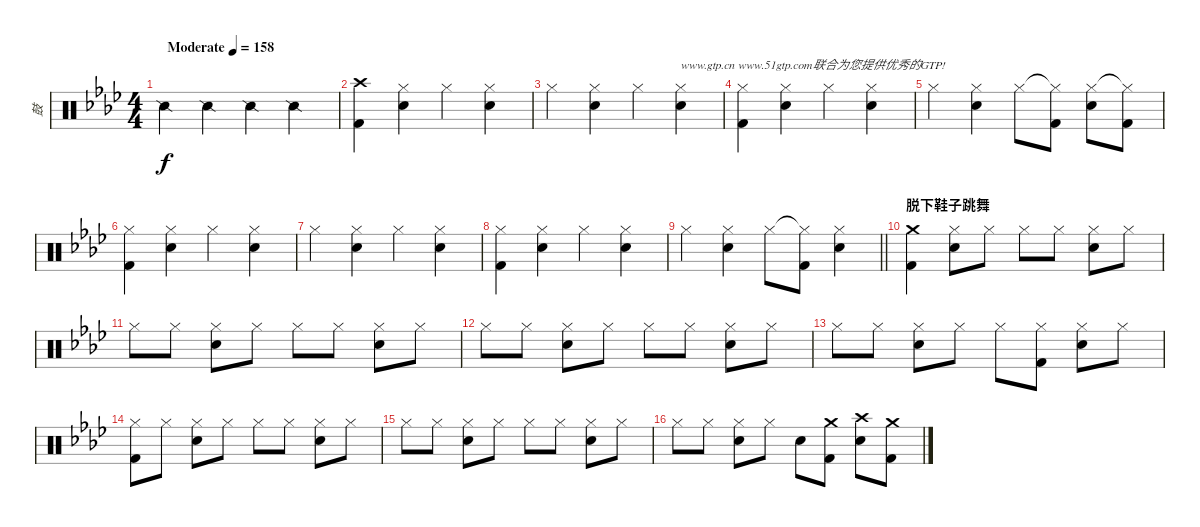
\track ("鼓" "鼓") {instrument percussion}
\staff {score}
\articulation defaults
\ts (4 4)
\tempo (158 "Moderate")
\clef neutral
\ks ab "Snare (side stick) 2".4{dy f} "Snare (side stick) 2".4 "Snare (side stick) 2".4 "Snare (side stick) 2".4
|
("Kick (hit) 2" "Crash high (hit)").4 ("Hi-Hat (closed)" "Electric Snare (hit)").4 "Hi-Hat (closed)".4 ("Hi-Hat (closed)" "Electric Snare (hit)").4 |
"Hi-Hat (closed)".4 ("Hi-Hat (closed)" "Electric Snare (hit)").4 "Hi-Hat (closed)".4 ("Hi-Hat (closed)" "Electric Snare (hit)").4{txt "www.gtp.cn www.51gtp.com联合为您提供优秀的GTP!"} |
("Kick (hit) 2" "Hi-Hat (closed)").4 ("Hi-Hat (closed)" "Electric Snare (hit)").4 "Hi-Hat (closed)".4 ("Hi-Hat (closed)" "Electric Snare (hit)").4 |
"Hi-Hat (closed)".4 ("Hi-Hat (closed)" "Electric Snare (hit)").4 "Hi-Hat (closed)".8 ("Hi-Hat (closed)"{t} "Kick (hit) 2").8 ("Hi-Hat (closed)" "Electric Snare (hit)").8 ("Hi-Hat (closed)"{t} "Kick (hit) 2").8 |
("Kick (hit) 2" "Hi-Hat (closed)").4 ("Hi-Hat (closed)" "Electric Snare (hit)").4 "Hi-Hat (closed)".4 ("Hi-Hat (closed)" "Electric Snare (hit)").4 |
"Hi-Hat (closed)".4 ("Hi-Hat (closed)" "Electric Snare (hit)").4 "Hi-Hat (closed)".4 ("Hi-Hat (closed)" "Electric Snare (hit)").4 |
("Kick (hit) 2" "Hi-Hat (closed)").4 ("Hi-Hat (closed)" "Electric Snare (hit)").4 "Hi-Hat (closed)".4 ("Hi-Hat (closed)" "Electric Snare (hit)").4 |
\barLineRight lightlight "Hi-Hat (closed)".4
("Hi-Hat (closed)" "Electric Snare (hit)").4 "Hi-Hat (closed)".8 ("Hi-Hat (closed)"{t} "Kick (hit) 2").8 ("Hi-Hat (closed)" "Electric Snare (hit)").4 |
\section ("" "脱下鞋子跳舞")
("Crash medium (hit)" "Kick (hit) 2").4 ("Hi-Hat (closed)" "Electric Snare (hit)").8 "Hi-Hat (closed)".8 "Hi-Hat (closed)".8 "Hi-Hat (closed)".8 ("Hi-Hat (closed)" "Electric Snare (hit)").8 "Hi-Hat (closed)".8 |
"Hi-Hat (closed)".8 "Hi-Hat (closed)".8 ("Hi-Hat (closed)" "Electric Snare (hit)").8 "Hi-Hat (closed)".8 "Hi-Hat (closed)".8 "Hi-Hat (closed)".8 ("Hi-Hat (closed)" "Electric Snare (hit)").8 "Hi-Hat (closed)".8 |
"Hi-Hat (closed)".8 "Hi-Hat (closed)".8 ("Hi-Hat (closed)" "Electric Snare (hit)").8 "Hi-Hat (closed)".8 "Hi-Hat (closed)".8 "Hi-Hat (closed)".8 ("Hi-Hat (closed)" "Electric Snare (hit)").8 "Hi-Hat (closed)".8 |
"Hi-Hat (closed)".8 "Hi-Hat (closed)".8 ("Hi-Hat (closed)" "Electric Snare (hit)").8 "Hi-Hat (closed)".8 "Hi-Hat (closed)".8 ("Hi-Hat (closed)" "Kick (hit) 2").8 ("Hi-Hat (closed)" "Electric Snare (hit)").8 "Hi-Hat (closed)".8 |
("Hi-Hat (closed)" "Kick (hit) 2").8 "Hi-Hat (closed)".8 ("Hi-Hat (closed)" "Electric Snare (hit)").8 "Hi-Hat (closed)".8 "Hi-Hat (closed)".8 "Hi-Hat (closed)".8 ("Hi-Hat (closed)" "Electric Snare (hit)").8 "Hi-Hat (closed)".8 |
"Hi-Hat (closed)".8 "Hi-Hat (closed)".8 ("Hi-Hat (closed)" "Electric Snare (hit)").8 "Hi-Hat (closed)".8 "Hi-Hat (closed)".8 "Hi-Hat (closed)".8 ("Hi-Hat (closed)" "Electric Snare (hit)").8 "Hi-Hat (closed)".8 |
"Hi-Hat (closed)".8 "Hi-Hat (closed)".8 ("Hi-Hat (closed)" "Electric Snare (hit)").8 "Hi-Hat (closed)".8 "Electric Snare (hit)".8 ("Crash medium (hit)" "Kick (hit) 2").8 ("Crash high (hit)" "Electric Snare (hit)").8 ("Crash medium (hit)" "Kick (hit) 2").8
